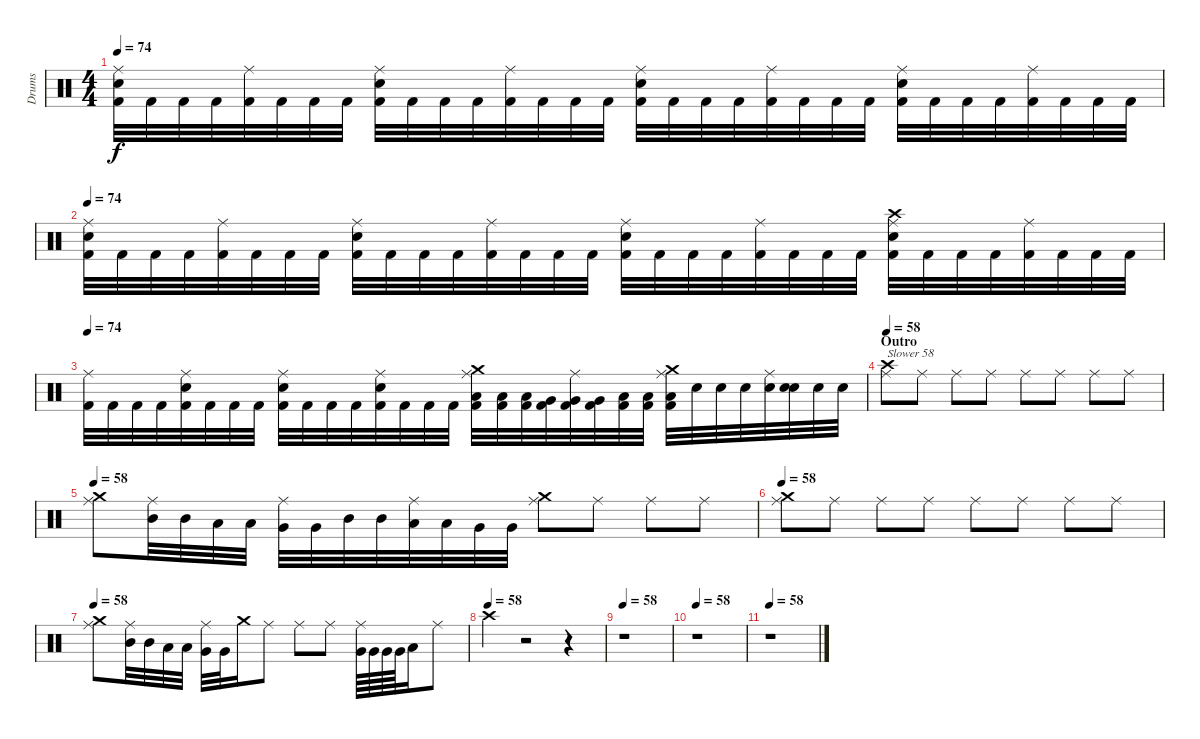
\track ("Drums" "Drums") {instrument percussion}
\staff {score}
\articulation defaults
\ts (4 4)
\tempo 74
\clef neutral
\ks c
("Ride (middle)" "Kick (hit) 2" "Electric Snare (hit)").32{dy f} "Kick (hit) 2".32 "Kick (hit) 2".32 "Kick (hit) 2".32 ("Kick (hit) 2" "Ride (middle)").32 "Kick (hit) 2".32 "Kick (hit) 2".32 "Kick (hit) 2".32 ("Ride (middle)" "Kick (hit) 2" "Electric Snare (hit)").32 "Kick (hit) 2".32 "Kick (hit) 2".32 "Kick (hit) 2".32 ("Kick (hit) 2" "Ride (middle)").32 "Kick (hit) 2".32 "Kick (hit) 2".32 "Kick (hit) 2".32 ("Ride (middle)" "Kick (hit) 2" "Electric Snare (hit)").32 "Kick (hit) 2".32 "Kick (hit) 2".32 "Kick (hit) 2".32 ("Kick (hit) 2" "Ride (middle)").32 "Kick (hit) 2".32 "Kick (hit) 2".32 "Kick (hit) 2".32 ("Ride (middle)" "Kick (hit) 2" "Electric Snare (hit)").32 "Kick (hit) 2".32 "Kick (hit) 2".32 "Kick (hit) 2".32 ("Kick (hit) 2" "Ride (middle)").32 "Kick (hit) 2".32 "Kick (hit) 2".32 "Kick (hit) 2".32 |
\tempo 74
("Ride (middle)" "Kick (hit) 2" "Electric Snare (hit)").32 "Kick (hit) 2".32 "Kick (hit) 2".32 "Kick (hit) 2".32 ("Kick (hit) 2" "Ride (middle)").32 "Kick (hit) 2".32 "Kick (hit) 2".32 "Kick (hit) 2".32 ("Ride (middle)" "Kick (hit) 2" "Electric Snare (hit)").32 "Kick (hit) 2".32 "Kick (hit) 2".32 "Kick (hit) 2".32 ("Kick (hit) 2" "Ride (middle)").32 "Kick (hit) 2".32 "Kick (hit) 2".32 "Kick (hit) 2".32 ("Ride (middle)" "Kick (hit) 2" "Electric Snare (hit)").32 "Kick (hit) 2".32 "Kick (hit) 2".32 "Kick (hit) 2".32 ("Kick (hit) 2" "Ride (middle)").32 "Kick (hit) 2".32 "Kick (hit) 2".32 "Kick (hit) 2".32 ("Crash high (hit)" "Ride (middle)" "Kick (hit) 2" "Electric Snare (hit)").32 "Kick (hit) 2".32 "Kick (hit) 2".32 "Kick (hit) 2".32 ("Kick (hit) 2" "Ride (middle)").32 "Kick (hit) 2".32 "Kick (hit) 2".32 "Kick (hit) 2".32 |
\tempo 74
("Ride (middle)" "Kick (hit) 2").32 "Kick (hit) 2".32 "Kick (hit) 2".32 "Kick (hit) 2".32 ("Kick (hit) 2" "Ride (middle)" "Electric Snare (hit)").32 "Kick (hit) 2".32 "Kick (hit) 2".32 "Kick (hit) 2".32 ("Ride (middle)" "Kick (hit) 2" "Electric Snare (hit)").32 "Kick (hit) 2".32 "Kick (hit) 2".32 "Kick (hit) 2".32 ("Kick (hit) 2" "Ride (middle)" "Electric Snare (hit)").32 "Kick (hit) 2".32 "Kick (hit) 2".32 "Kick (hit) 2".32 ("Ride (middle)" "Kick (hit) 2" "Crash medium (hit)" "Low Tom (hit)").32 ("Kick (hit) 2" "Low Tom (hit)").32 ("Kick (hit) 2" "Low Tom (hit)").32 ("Kick (hit) 2" "Very Low Tom (hit)").32 ("Kick (hit) 2" "Ride (middle)" "Very Low Tom (hit)").32 ("Kick (hit) 2" "Very Low Tom (hit)").32 ("Kick (hit) 2" "Low Floor Tom (hit)").32 ("Kick (hit) 2" "Low Floor Tom (hit)").32 ("Crash medium (hit)" "Ride (middle)" "Kick (hit) 2" "Low Floor Tom (hit)").32 "Electric Snare (hit)".32 "Electric Snare (hit)".32 "Electric Snare (hit)".32 ("Ride (middle)" "Electric Snare (hit)").32 ("Electric Snare (hit)" "Electric Snare (hit)").32 "Electric Snare (hit)".32 "Electric Snare (hit)".32 |
\section ("" "Outro")
\tempo 58
("Ride (middle)" "Crash high (hit)").8{txt "Slower 58"} "Ride (middle)".8 "Ride (middle)".8 "Ride (middle)".8 "Ride (middle)".8 "Ride (middle)".8 "Ride (middle)".8 "Ride (middle)".8 |
\tempo 58
("Ride (middle)" "Crash medium (hit)").8 ("Ride (middle)" "Mid Tom (hit)").32 "Mid Tom (hit)".32 "Low Tom (hit)".32 "Low Tom (hit)".32 ("Ride (middle)" "Very Low Tom (hit)").32 "Very Low Tom (hit)".32 "Mid Tom (hit)".32 "Mid Tom (hit)".32 ("Ride (middle)" "Low Tom (hit)").32 "Low Tom (hit)".32 "Very Low Tom (hit)".32 "Very Low Tom (hit)".32 ("Ride (middle)" "Crash medium (hit)").8 "Ride (middle)".8 "Ride (middle)".8 "Ride (middle)".8 |
\tempo 58
("Ride (middle)" "Crash medium (hit)").8 "Ride (middle)".8 "Ride (middle)".8 "Ride (middle)".8 "Ride (middle)".8 "Ride (middle)".8 "Ride (middle)".8 "Ride (middle)".8 |
\tempo 58
("Ride (middle)" "Crash medium (hit)").8 ("Ride (middle)" "Mid Tom (hit)").32 "Mid Tom (hit)".32 "Low Tom (hit)".32 "Low Tom (hit)".32 ("Ride (middle)" "Very Low Tom (hit)").32 "Very Low Tom (hit)".32 "Crash medium (hit)".16 "Ride (middle)".8 "Ride (middle)".8 "Ride (middle)".8 ("Ride (middle)" "Very Low Tom (hit)").64 "Very Low Tom (hit)".64 "Very Low Tom (hit)".64 "Very Low Tom (hit)".64 "Low Floor Tom (hit)".16 "Ride (middle)".8 |
\tempo (58)
"Crash high (hit)".4 r.2 r.4 |
\tempo 58
r.1 |
\tempo 58
r.1 |
\tempo 58
r.1
